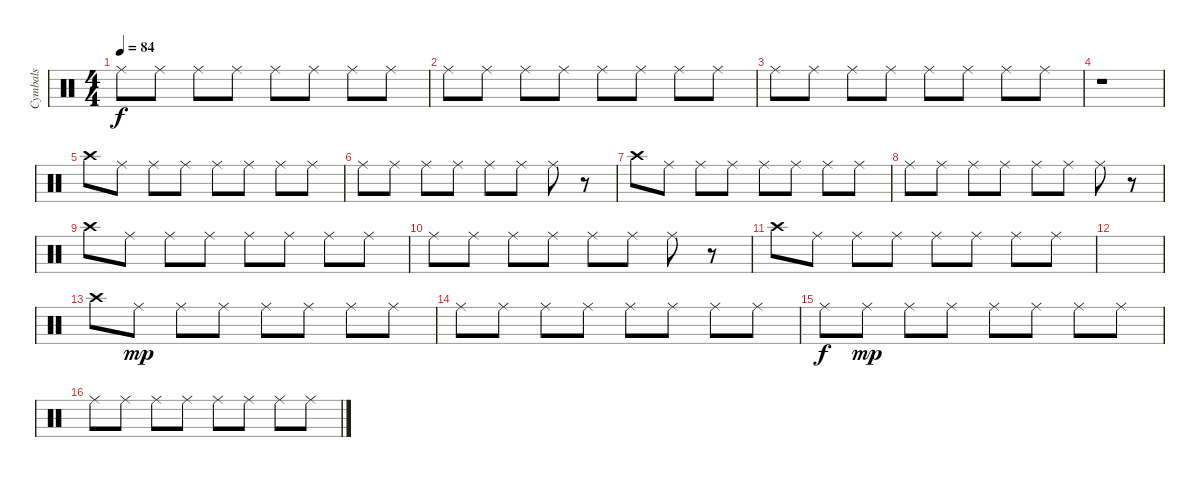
\track ("Cymbals" "Cymbals") {instrument percussion}
\staff {score}
\articulation defaults
\ts (4 4)
\tempo 84
\clef neutral
\ks c "Ride (middle)".8{dy f} "Ride (middle)".8 "Ride (middle)".8 "Ride (middle)".8 "Ride (middle)".8 "Ride (middle)".8 "Ride (middle)".8 "Ride (middle)".8
|
"Ride (middle)".8 "Ride (middle)".8 "Ride (middle)".8 "Ride (middle)".8 "Ride (middle)".8 "Ride (middle)".8 "Ride (middle)".8 "Ride (middle)".8 |
"Ride (middle)".8 "Ride (middle)".8 "Ride (middle)".8 "Ride (middle)".8 "Ride (middle)".8 "Ride (middle)".8 "Ride (middle)".8 "Ride (middle)".8 |
r.1 |
"Crash high (hit)".8 "Ride (middle)".8 "Ride (middle)".8 "Ride (middle)".8 "Ride (middle)".8 "Ride (middle)".8 "Ride (middle)".8 "Ride (middle)".8 |
"Ride (middle)".8 "Ride (middle)".8 "Ride (middle)".8 "Ride (middle)".8 "Ride (middle)".8 "Ride (middle)".8 "Ride (middle)".8 r.8 |
"Crash high (hit)".8 "Ride (middle)".8 "Ride (middle)".8 "Ride (middle)".8 "Ride (middle)".8 "Ride (middle)".8 "Ride (middle)".8 "Ride (middle)".8 |
"Ride (middle)".8 "Ride (middle)".8 "Ride (middle)".8 "Ride (middle)".8 "Ride (middle)".8 "Ride (middle)".8 "Ride (middle)".8 r.8 |
"Crash high (hit)".8 "Ride (middle)".8 "Ride (middle)".8 "Ride (middle)".8 "Ride (middle)".8 "Ride (middle)".8 "Ride (middle)".8 "Ride (middle)".8 |
"Ride (middle)".8 "Ride (middle)".8 "Ride (middle)".8 "Ride (middle)".8 "Ride (middle)".8 "Ride (middle)".8 "Ride (middle)".8 r.8 |
"Crash high (hit)".8 "Ride (middle)".8 "Ride (middle)".8 "Ride (middle)".8 "Ride (middle)".8 "Ride (middle)".8 "Ride (middle)".8 "Ride (middle)".8 |
|
"Crash high (hit)".8 "Ride (middle)".8{dy mp} "Ride (middle)".8 "Ride (middle)".8 "Ride (middle)".8 "Ride (middle)".8 "Ride (middle)".8 "Ride (middle)".8 |
"Ride (middle)".8 "Ride (middle)".8 "Ride (middle)".8 "Ride (middle)".8 "Ride (middle)".8 "Ride (middle)".8 "Ride (middle)".8 "Ride (middle)".8 |
"Ride (middle)".8{dy f} "Ride (middle)".8{dy mp} "Ride (middle)".8 "Ride (middle)".8 "Ride (middle)".8 "Ride (middle)".8 "Ride (middle)".8 "Ride (middle)".8 |
"Ride (middle)".8 "Ride (middle)".8 "Ride (middle)".8 "Ride (middle)".8 "Ride (middle)".8 "Ride (middle)".8 "Ride (middle)".8 "Ride (middle)".8
